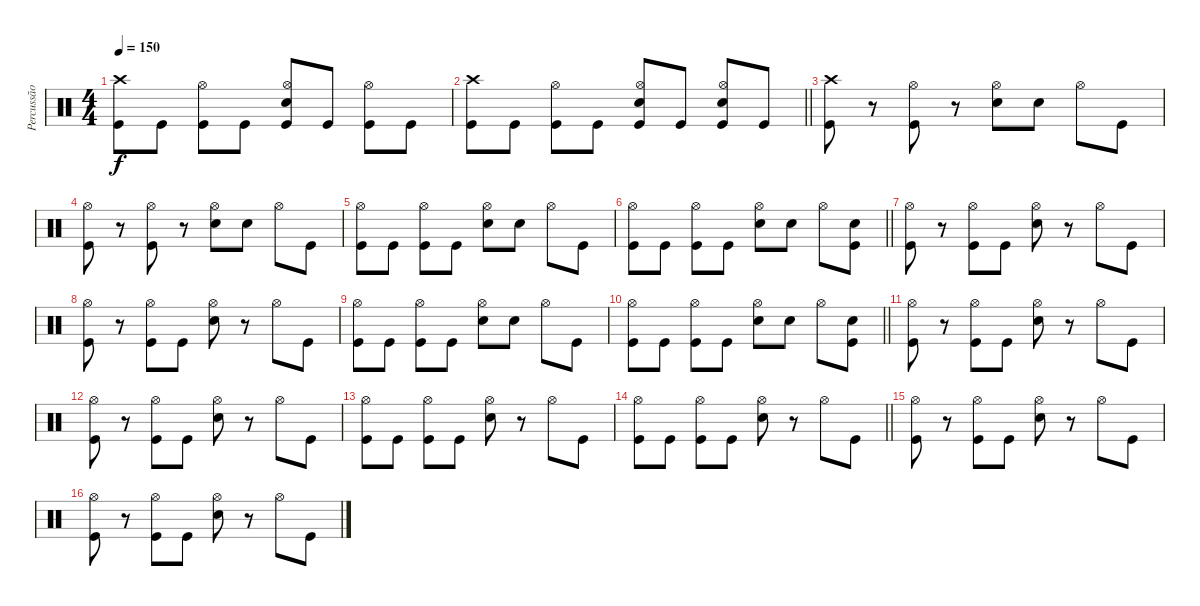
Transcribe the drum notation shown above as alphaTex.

\track ("Percussão" "Percussão") {instrument percussion}
\staff {score}
\articulation defaults
\ts (4 4)
\tempo 150
\clef neutral
\ks c
("Crash high (hit)" "Kick (hit)").8{dy f} "Kick (hit)".8 ("Hi-Hat (open)" "Kick (hit)").8 "Kick (hit)".8 ("Hi-Hat (open)" "Snare (hit) 2" "Kick (hit)").8 "Kick (hit)".8 ("Hi-Hat (open)" "Kick (hit)").8 "Kick (hit)".8 |
\barLineRight lightlight
("Crash high (hit)" "Kick (hit)").8 "Kick (hit)".8 ("Hi-Hat (open)" "Kick (hit)").8 "Kick (hit)".8 ("Hi-Hat (open)" "Snare (hit) 2" "Kick (hit)").8 "Kick (hit)".8 ("Hi-Hat (open)" "Snare (hit) 2" "Kick (hit)").8 "Kick (hit)".8 |
("Crash high (hit)" "Kick (hit)").8 r.8 ("Hi-Hat (open)" "Kick (hit)").8 r.8 ("Hi-Hat (open)" "Snare (hit) 2").8 "Snare (hit) 2".8 "Hi-Hat (open)".8 "Kick (hit)".8 |
("Hi-Hat (open)" "Kick (hit)").8 r.8 ("Hi-Hat (open)" "Kick (hit)").8 r.8 ("Hi-Hat (open)" "Snare (hit) 2").8 "Snare (hit) 2".8 "Hi-Hat (open)".8 "Kick (hit)".8 |
("Hi-Hat (open)" "Kick (hit)").8 "Kick (hit)".8 ("Hi-Hat (open)" "Kick (hit)").8 "Kick (hit)".8 ("Hi-Hat (open)" "Snare (hit) 2").8 "Snare (hit) 2".8 "Hi-Hat (open)".8 "Kick (hit)".8 |
\barLineRight lightlight
("Hi-Hat (open)" "Kick (hit)").8 "Kick (hit)".8 ("Hi-Hat (open)" "Kick (hit)").8 "Kick (hit)".8 ("Hi-Hat (open)" "Snare (hit) 2").8 "Snare (hit) 2".8 "Hi-Hat (open)".8 ("Snare (hit) 2" "Kick (hit)").8 |
("Hi-Hat (open)" "Kick (hit)").8 r.8 ("Hi-Hat (open)" "Kick (hit)").8 "Kick (hit)".8 ("Hi-Hat (open)" "Snare (hit) 2").8 r.8 "Hi-Hat (open)".8 "Kick (hit)".8 |
("Hi-Hat (open)" "Kick (hit)").8 r.8 ("Hi-Hat (open)" "Kick (hit)").8 "Kick (hit)".8 ("Hi-Hat (open)" "Snare (hit) 2").8 r.8 "Hi-Hat (open)".8 "Kick (hit)".8 |
("Hi-Hat (open)" "Kick (hit)").8 "Kick (hit)".8 ("Hi-Hat (open)" "Kick (hit)").8 "Kick (hit)".8 ("Hi-Hat (open)" "Snare (hit) 2").8 "Snare (hit) 2".8 "Hi-Hat (open)".8 "Kick (hit)".8 |
\barLineRight lightlight
("Hi-Hat (open)" "Kick (hit)").8 "Kick (hit)".8 ("Hi-Hat (open)" "Kick (hit)").8 "Kick (hit)".8 ("Hi-Hat (open)" "Snare (hit) 2").8 "Snare (hit) 2".8 "Hi-Hat (open)".8 ("Snare (hit) 2" "Kick (hit)").8 |
("Hi-Hat (open)" "Kick (hit)").8 r.8 ("Hi-Hat (open)" "Kick (hit)").8 "Kick (hit)".8 ("Hi-Hat (open)" "Snare (hit) 2").8 r.8 "Hi-Hat (open)".8 "Kick (hit)".8 |
("Hi-Hat (open)" "Kick (hit)").8 r.8 ("Hi-Hat (open)" "Kick (hit)").8 "Kick (hit)".8 ("Hi-Hat (open)" "Snare (hit) 2").8 r.8 "Hi-Hat (open)".8 "Kick (hit)".8 |
("Hi-Hat (open)" "Kick (hit)").8 "Kick (hit)".8 ("Hi-Hat (open)" "Kick (hit)").8 "Kick (hit)".8 ("Hi-Hat (open)" "Snare (hit) 2").8 r.8 "Hi-Hat (open)".8 "Kick (hit)".8 |
\barLineRight lightlight
("Hi-Hat (open)" "Kick (hit)").8 "Kick (hit)".8 ("Hi-Hat (open)" "Kick (hit)").8 "Kick (hit)".8 ("Hi-Hat (open)" "Snare (hit) 2").8 r.8 "Hi-Hat (open)".8 "Kick (hit)".8 |
("Hi-Hat (open)" "Kick (hit)").8 r.8 ("Hi-Hat (open)" "Kick (hit)").8 "Kick (hit)".8 ("Hi-Hat (open)" "Snare (hit) 2").8 r.8 "Hi-Hat (open)".8 "Kick (hit)".8 |
("Hi-Hat (open)" "Kick (hit)").8 r.8 ("Hi-Hat (open)" "Kick (hit)").8 "Kick (hit)".8 ("Hi-Hat (open)" "Snare (hit) 2").8 r.8 "Hi-Hat (open)".8 "Kick (hit)".8
